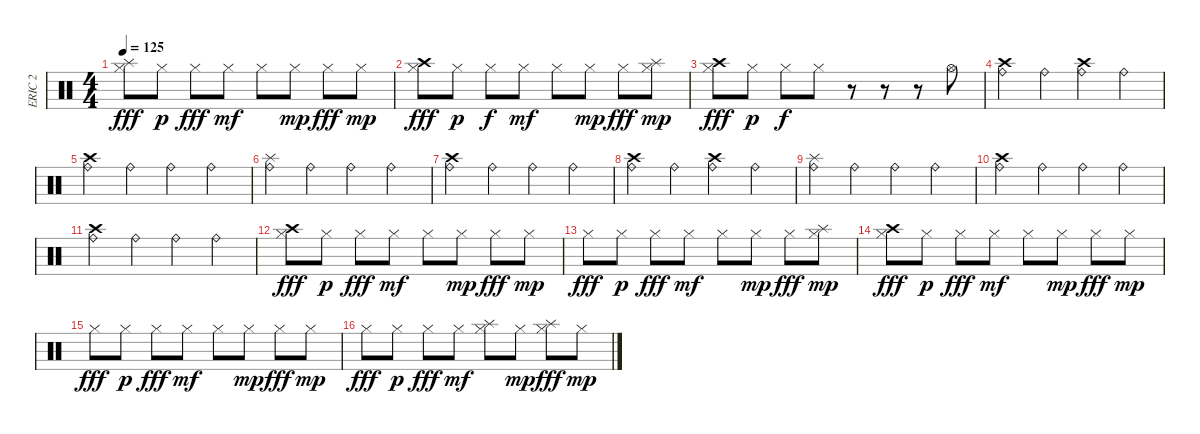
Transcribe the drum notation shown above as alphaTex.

\track ("ERIC 2" "ERIC 2") {instrument percussion}
\staff {score}
\articulation defaults
\ts (4 4)
\tempo 125
\clef neutral
\ks c
("Splash (hit)" "Hi-Hat (closed)").8{dy fff} "Hi-Hat (closed)".8{dy p} "Hi-Hat (closed)".8{dy fff} "Hi-Hat (closed)".8{dy mf} "Hi-Hat (closed)".8 "Hi-Hat (closed)".8{dy mp} "Hi-Hat (closed)".8{dy fff} "Hi-Hat (closed)".8{dy mp} |
("Crash high (hit)" "Hi-Hat (closed)").8{dy fff} "Hi-Hat (closed)".8{dy p} "Hi-Hat (closed)".8{dy f} "Hi-Hat (closed)".8{dy mf} "Hi-Hat (closed)".8 "Hi-Hat (closed)".8{dy mp} "Hi-Hat (closed)".8{dy fff} ("Splash (hit)" "Hi-Hat (closed)").8{dy mp} |
("Crash high (hit)" "Hi-Hat (closed)").8{dy fff} "Hi-Hat (closed)".8{dy p} "Hi-Hat (closed)".8{dy f} "Hi-Hat (closed)".8 r.8 r.8 r.8 "Hi-Hat (open)".8 |
("Crash high (hit)" "Ride (bell)").4 "Ride (bell)".4 ("Crash high (hit)" "Ride (bell)").4 "Ride (bell)".4 |
("Crash high (hit)" "Ride (bell)").4 "Ride (bell)".4 "Ride (bell)".4 "Ride (bell)".4 |
("Splash (hit)" "Ride (bell)").4 "Ride (bell)".4 "Ride (bell)".4 "Ride (bell)".4 |
("Crash high (hit)" "Ride (bell)").4 "Ride (bell)".4 "Ride (bell)".4 "Ride (bell)".4 |
("Crash high (hit)" "Ride (bell)").4 "Ride (bell)".4 ("Crash high (hit)" "Ride (bell)").4 "Ride (bell)".4 |
("Splash (hit)" "Ride (bell)").4 "Ride (bell)".4 "Ride (bell)".4 "Ride (bell)".4 |
("Crash high (hit)" "Ride (bell)").4 "Ride (bell)".4 "Ride (bell)".4 "Ride (bell)".4 |
("Crash high (hit)" "Ride (bell)").4 "Ride (bell)".4 "Ride (bell)".4 "Ride (bell)".4 |
("Crash high (hit)" "Hi-Hat (closed)").8{dy fff} "Hi-Hat (closed)".8{dy p} "Hi-Hat (closed)".8{dy fff} "Hi-Hat (closed)".8{dy mf} "Hi-Hat (closed)".8 "Hi-Hat (closed)".8{dy mp} "Hi-Hat (closed)".8{dy fff} "Hi-Hat (closed)".8{dy mp} |
"Hi-Hat (closed)".8{dy fff} "Hi-Hat (closed)".8{dy p} "Hi-Hat (closed)".8{dy fff} "Hi-Hat (closed)".8{dy mf} "Hi-Hat (closed)".8 "Hi-Hat (closed)".8{dy mp} "Hi-Hat (closed)".8{dy fff} ("Splash (hit)" "Hi-Hat (closed)").8{dy mp} |
("Crash high (hit)" "Hi-Hat (closed)").8{dy fff} "Hi-Hat (closed)".8{dy p} "Hi-Hat (closed)".8{dy fff} "Hi-Hat (closed)".8{dy mf} "Hi-Hat (closed)".8 "Hi-Hat (closed)".8{dy mp} "Hi-Hat (closed)".8{dy fff} "Hi-Hat (closed)".8{dy mp} |
"Hi-Hat (closed)".8{dy fff} "Hi-Hat (closed)".8{dy p} "Hi-Hat (closed)".8{dy fff} "Hi-Hat (closed)".8{dy mf} "Hi-Hat (closed)".8 "Hi-Hat (closed)".8{dy mp} "Hi-Hat (closed)".8{dy fff} "Hi-Hat (closed)".8{dy mp} |
"Hi-Hat (closed)".8{dy fff} "Hi-Hat (closed)".8{dy p} "Hi-Hat (closed)".8{dy fff} "Hi-Hat (closed)".8{dy mf} ("Splash (hit)" "Hi-Hat (closed)").8 "Hi-Hat (closed)".8{dy mp} ("Splash (hit)" "Hi-Hat (closed)").8{dy fff} "Hi-Hat (closed)".8{dy mp}
